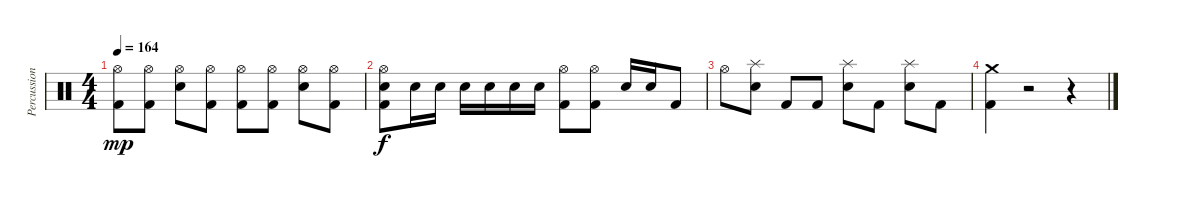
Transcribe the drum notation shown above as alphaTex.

\track ("Percussion" "Percussion") {instrument percussion}
\staff {score}
\articulation defaults
\ts (4 4)
\tempo 164
\clef neutral
\ks c
("Hi-Hat (open)" "Kick (hit) 2").8{dy mp} ("Hi-Hat (open)" "Kick (hit) 2").8 ("Hi-Hat (open)" "Electric Snare (hit)").8 ("Hi-Hat (open)" "Kick (hit) 2").8 ("Hi-Hat (open)" "Kick (hit) 2").8 ("Hi-Hat (open)" "Kick (hit) 2").8 ("Hi-Hat (open)" "Electric Snare (hit)").8 ("Hi-Hat (open)" "Kick (hit) 2").8 |
("Hi-Hat (open)" "Electric Snare (hit)" "Kick (hit) 2").8{dy f} "Electric Snare (hit)".16 "Electric Snare (hit)".16 "Electric Snare (hit)".16 "Electric Snare (hit)".16 "Electric Snare (hit)".16 "Electric Snare (hit)".16 ("Hi-Hat (open)" "Kick (hit) 2").8 ("Hi-Hat (open)" "Kick (hit) 2").8 "Electric Snare (hit)".16 "Electric Snare (hit)".16 "Kick (hit) 2".8 |
"Hi-Hat (open)".8 ("Splash (hit)" "Electric Snare (hit)").8 "Kick (hit) 2".8 "Kick (hit) 2".8 ("Splash (hit)" "Electric Snare (hit)").8 "Kick (hit) 2".8 ("Splash (hit)" "Electric Snare (hit)").8 "Kick (hit) 2".8 |
("Crash medium (hit)" "Kick (hit) 2").4 r.2 r.4
